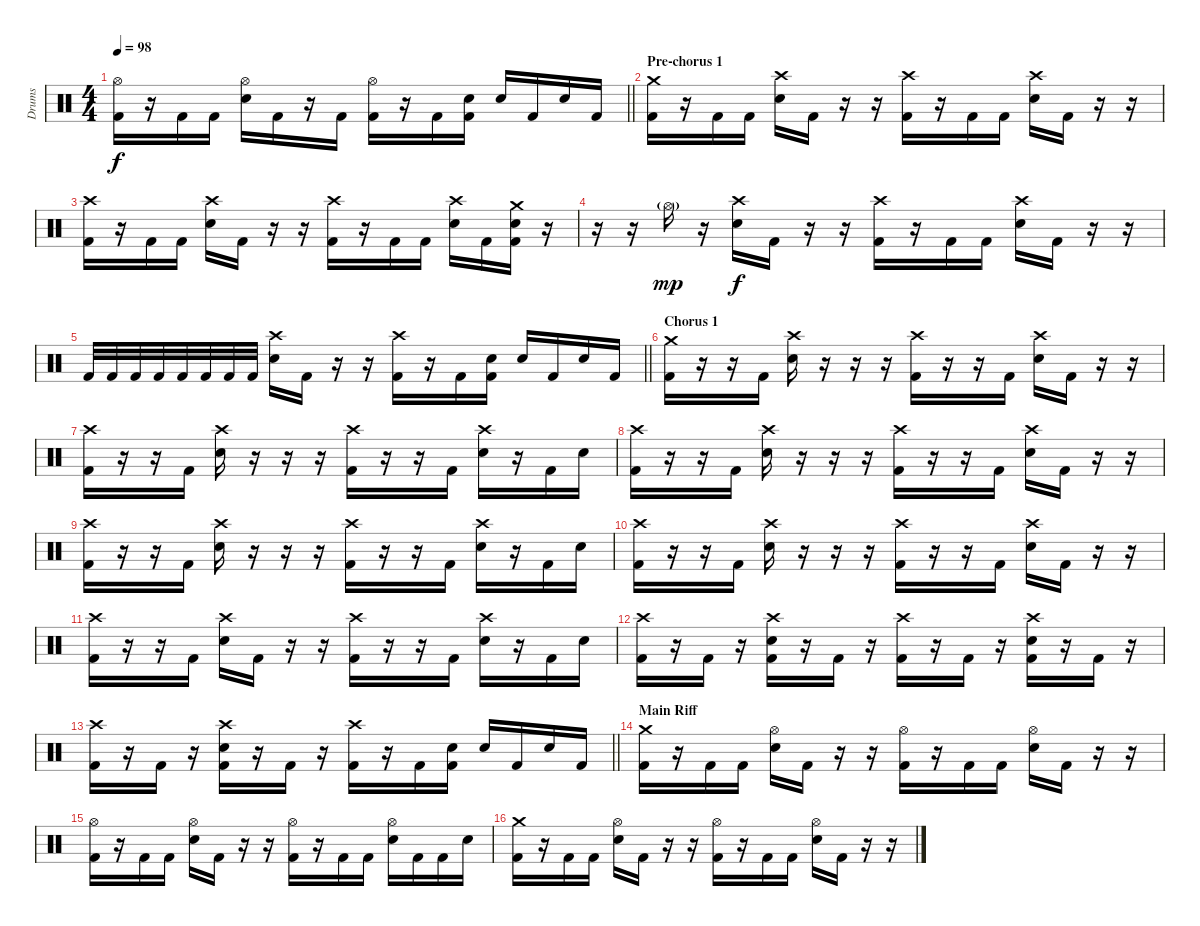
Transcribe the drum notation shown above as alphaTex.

\track ("Drums" "Drums") {instrument percussion}
\staff {score}
\articulation defaults
\ts (4 4)
\tempo 98
\clef neutral
\barLineRight lightlight
\ks c
("Hi-Hat (open)" "Kick (hit) 2").16{dy f} r.16 "Kick (hit) 2".16 "Kick (hit) 2".16 ("Hi-Hat (open)" "Electric Snare (hit)").16 "Kick (hit) 2".16 r.16 "Kick (hit) 2".16 ("Hi-Hat (open)" "Kick (hit) 2").16 r.16 "Kick (hit) 2".16 ("Electric Snare (hit)" "Kick (hit) 2").16 "Electric Snare (hit)".16 "Kick (hit) 2".16 "Electric Snare (hit)".16 "Kick (hit) 2".16 |
\section ("" "Pre-chorus 1")
("Crash medium (hit)" "Kick (hit) 2").16 r.16 "Kick (hit) 2".16 "Kick (hit) 2".16 ("Crash high (hit)" "Electric Snare (hit)").16 "Kick (hit) 2".16 r.16 r.16 ("Crash high (hit)" "Kick (hit) 2").16 r.16 "Kick (hit) 2".16 "Kick (hit) 2".16 ("Crash high (hit)" "Electric Snare (hit)").16 "Kick (hit) 2".16 r.16 r.16 |
("Crash high (hit)" "Kick (hit) 2").16 r.16 "Kick (hit) 2".16 "Kick (hit) 2".16 ("Crash high (hit)" "Electric Snare (hit)").16 "Kick (hit) 2".16 r.16 r.16 ("Crash high (hit)" "Kick (hit) 2").16 r.16 "Kick (hit) 2".16 "Kick (hit) 2".16 ("Crash high (hit)" "Electric Snare (hit)").16 "Kick (hit) 2".16 ("Crash medium (hit)" "Electric Snare (hit)" "Kick (hit) 2").16 r.16 |
r.16 r.16 "Hi-Hat (open)"{g}.16{dy mp} r.16 ("Crash high (hit)" "Electric Snare (hit)").16{dy f} "Kick (hit) 2".16 r.16 r.16 ("Crash high (hit)" "Kick (hit) 2").16 r.16 "Kick (hit) 2".16 "Kick (hit) 2".16 ("Crash high (hit)" "Electric Snare (hit)").16 "Kick (hit) 2".16 r.16 r.16 |
\barLineRight lightlight "Kick (hit) 2".32 "Kick (hit) 2".32 "Kick (hit) 2".32 "Kick (hit) 2".32 "Kick (hit) 2".32 "Kick (hit) 2".32 "Kick (hit) 2".32 "Kick (hit) 2".32
("Crash high (hit)" "Electric Snare (hit)").16 "Kick (hit) 2".16 r.16 r.16 ("Crash high (hit)" "Kick (hit) 2").16 r.16 "Kick (hit) 2".16 ("Electric Snare (hit)" "Kick (hit) 2").16 "Electric Snare (hit)".16 "Kick (hit) 2".16 "Electric Snare (hit)".16 "Kick (hit) 2".16 |
\section ("" "Chorus 1")
("Crash medium (hit)" "Kick (hit) 2").16 r.16 r.16 "Kick (hit) 2".16 ("Crash high (hit)" "Electric Snare (hit)").16 r.16 r.16 r.16 ("Crash high (hit)" "Kick (hit) 2").16 r.16 r.16 "Kick (hit) 2".16 ("Crash high (hit)" "Electric Snare (hit)").16 "Kick (hit) 2".16 r.16 r.16 |
("Crash high (hit)" "Kick (hit) 2").16 r.16 r.16 "Kick (hit) 2".16 ("Crash high (hit)" "Electric Snare (hit)").16 r.16 r.16 r.16 ("Crash high (hit)" "Kick (hit) 2").16 r.16 r.16 "Kick (hit) 2".16 ("Crash high (hit)" "Electric Snare (hit)").16 r.16 "Kick (hit) 2".16 "Electric Snare (hit)".16 |
("Crash high (hit)" "Kick (hit) 2").16 r.16 r.16 "Kick (hit) 2".16 ("Crash high (hit)" "Electric Snare (hit)").16 r.16 r.16 r.16 ("Crash high (hit)" "Kick (hit) 2").16 r.16 r.16 "Kick (hit) 2".16 ("Crash high (hit)" "Electric Snare (hit)").16 "Kick (hit) 2".16 r.16 r.16 |
("Crash high (hit)" "Kick (hit) 2").16 r.16 r.16 "Kick (hit) 2".16 ("Crash high (hit)" "Electric Snare (hit)").16 r.16 r.16 r.16 ("Crash high (hit)" "Kick (hit) 2").16 r.16 r.16 "Kick (hit) 2".16 ("Crash high (hit)" "Electric Snare (hit)").16 r.16 "Kick (hit) 2".16 "Electric Snare (hit)".16 |
("Crash high (hit)" "Kick (hit) 2").16 r.16 r.16 "Kick (hit) 2".16 ("Crash high (hit)" "Electric Snare (hit)").16 r.16 r.16 r.16 ("Crash high (hit)" "Kick (hit) 2").16 r.16 r.16 "Kick (hit) 2".16 ("Crash high (hit)" "Electric Snare (hit)").16 "Kick (hit) 2".16 r.16 r.16 |
("Crash high (hit)" "Kick (hit) 2").16 r.16 r.16 "Kick (hit) 2".16 ("Crash high (hit)" "Electric Snare (hit)").16 "Kick (hit) 2".16 r.16 r.16 ("Crash high (hit)" "Kick (hit) 2").16 r.16 r.16 "Kick (hit) 2".16 ("Crash high (hit)" "Electric Snare (hit)").16 r.16 "Kick (hit) 2".16 "Electric Snare (hit)".16 |
("Crash high (hit)" "Kick (hit) 2").16 r.16 "Kick (hit) 2".16 r.16 ("Crash high (hit)" "Electric Snare (hit)" "Kick (hit) 2").16 r.16 "Kick (hit) 2".16 r.16 ("Crash high (hit)" "Kick (hit) 2").16 r.16 "Kick (hit) 2".16 r.16 ("Crash high (hit)" "Electric Snare (hit)" "Kick (hit) 2").16 r.16 "Kick (hit) 2".16 r.16 |
\barLineRight lightlight
("Crash high (hit)" "Kick (hit) 2").16 r.16 "Kick (hit) 2".16 r.16 ("Crash high (hit)" "Electric Snare (hit)" "Kick (hit) 2").16 r.16 "Kick (hit) 2".16 r.16 ("Crash high (hit)" "Kick (hit) 2").16 r.16 "Kick (hit) 2".16 ("Electric Snare (hit)" "Kick (hit) 2").16 "Electric Snare (hit)".16 "Kick (hit) 2".16 "Electric Snare (hit)".16 "Kick (hit) 2".16 |
\section ("" "Main Riff")
("Crash medium (hit)" "Kick (hit) 2").16 r.16 "Kick (hit) 2".16 "Kick (hit) 2".16 ("Hi-Hat (open)" "Electric Snare (hit)").16 "Kick (hit) 2".16 r.16 r.16 ("Hi-Hat (open)" "Kick (hit) 2").16 r.16 "Kick (hit) 2".16 "Kick (hit) 2".16 ("Hi-Hat (open)" "Electric Snare (hit)").16 "Kick (hit) 2".16 r.16 r.16 |
("Hi-Hat (open)" "Kick (hit) 2").16 r.16 "Kick (hit) 2".16 "Kick (hit) 2".16 ("Hi-Hat (open)" "Electric Snare (hit)").16 "Kick (hit) 2".16 r.16 r.16 ("Hi-Hat (open)" "Kick (hit) 2").16 r.16 "Kick (hit) 2".16 "Kick (hit) 2".16 ("Hi-Hat (open)" "Electric Snare (hit)").16 "Kick (hit) 2".16 "Kick (hit) 2".16 "Electric Snare (hit)".16 |
("Crash medium (hit)" "Kick (hit) 2").16 r.16 "Kick (hit) 2".16 "Kick (hit) 2".16 ("Hi-Hat (open)" "Electric Snare (hit)").16 "Kick (hit) 2".16 r.16 r.16 ("Hi-Hat (open)" "Kick (hit) 2").16 r.16 "Kick (hit) 2".16 "Kick (hit) 2".16 ("Hi-Hat (open)" "Electric Snare (hit)").16 "Kick (hit) 2".16 r.16 r.16
